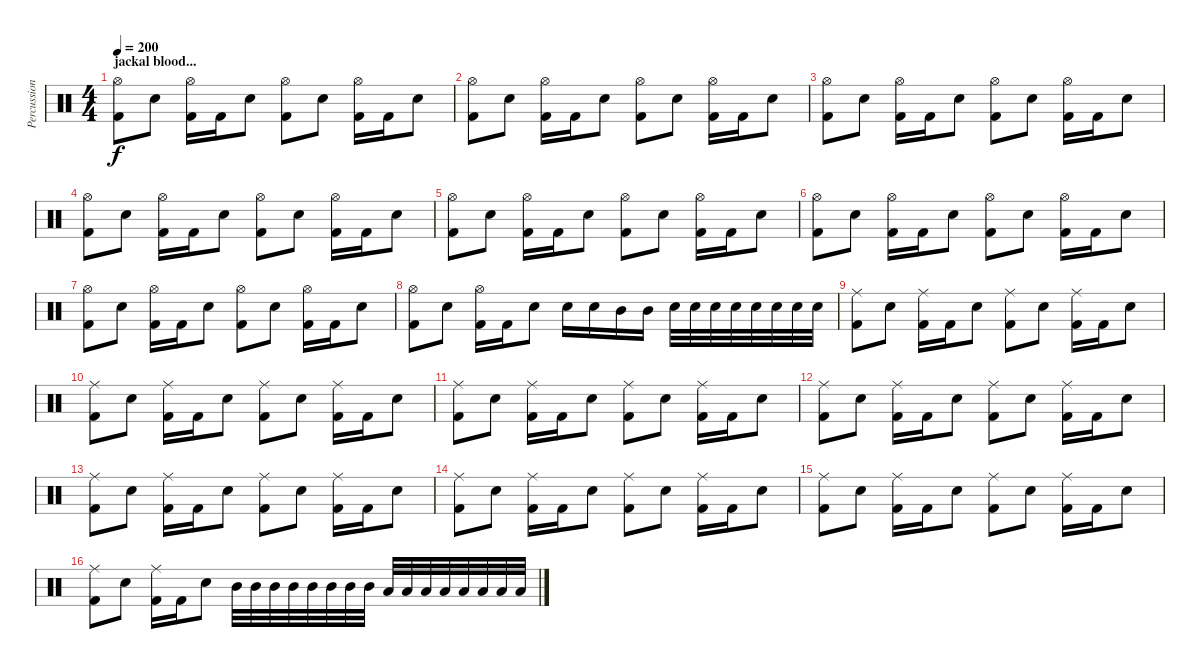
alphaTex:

\track ("Percussions" "Percussion") {instrument percussion}
\staff {score}
\articulation defaults
\ts (4 4)
\section ("" "jackal blood...")
\tempo 200
\clef neutral
\ks c
("Hi-Hat (open)" "Kick (hit) 2").8{dy f} "Electric Snare (hit)".8 ("Hi-Hat (open)" "Kick (hit) 2").16 "Kick (hit) 2".16 "Electric Snare (hit)".8 ("Hi-Hat (open)" "Kick (hit) 2").8 "Electric Snare (hit)".8 ("Hi-Hat (open)" "Kick (hit) 2").16 "Kick (hit) 2".16 "Electric Snare (hit)".8 |
("Hi-Hat (open)" "Kick (hit) 2").8 "Electric Snare (hit)".8 ("Hi-Hat (open)" "Kick (hit) 2").16 "Kick (hit) 2".16 "Electric Snare (hit)".8 ("Hi-Hat (open)" "Kick (hit) 2").8 "Electric Snare (hit)".8 ("Hi-Hat (open)" "Kick (hit) 2").16 "Kick (hit) 2".16 "Electric Snare (hit)".8 |
("Hi-Hat (open)" "Kick (hit) 2").8 "Electric Snare (hit)".8 ("Hi-Hat (open)" "Kick (hit) 2").16 "Kick (hit) 2".16 "Electric Snare (hit)".8 ("Hi-Hat (open)" "Kick (hit) 2").8 "Electric Snare (hit)".8 ("Hi-Hat (open)" "Kick (hit) 2").16 "Kick (hit) 2".16 "Electric Snare (hit)".8 |
("Hi-Hat (open)" "Kick (hit) 2").8 "Electric Snare (hit)".8 ("Hi-Hat (open)" "Kick (hit) 2").16 "Kick (hit) 2".16 "Electric Snare (hit)".8 ("Hi-Hat (open)" "Kick (hit) 2").8 "Electric Snare (hit)".8 ("Hi-Hat (open)" "Kick (hit) 2").16 "Kick (hit) 2".16 "Electric Snare (hit)".8 |
("Hi-Hat (open)" "Kick (hit) 2").8 "Electric Snare (hit)".8 ("Hi-Hat (open)" "Kick (hit) 2").16 "Kick (hit) 2".16 "Electric Snare (hit)".8 ("Hi-Hat (open)" "Kick (hit) 2").8 "Electric Snare (hit)".8 ("Hi-Hat (open)" "Kick (hit) 2").16 "Kick (hit) 2".16 "Electric Snare (hit)".8 |
("Hi-Hat (open)" "Kick (hit) 2").8 "Electric Snare (hit)".8 ("Hi-Hat (open)" "Kick (hit) 2").16 "Kick (hit) 2".16 "Electric Snare (hit)".8 ("Hi-Hat (open)" "Kick (hit) 2").8 "Electric Snare (hit)".8 ("Hi-Hat (open)" "Kick (hit) 2").16 "Kick (hit) 2".16 "Electric Snare (hit)".8 |
("Hi-Hat (open)" "Kick (hit) 2").8 "Electric Snare (hit)".8 ("Hi-Hat (open)" "Kick (hit) 2").16 "Kick (hit) 2".16 "Electric Snare (hit)".8 ("Hi-Hat (open)" "Kick (hit) 2").8 "Electric Snare (hit)".8 ("Hi-Hat (open)" "Kick (hit) 2").16 "Kick (hit) 2".16 "Electric Snare (hit)".8 |
("Hi-Hat (open)" "Kick (hit) 2").8 "Electric Snare (hit)".8 ("Hi-Hat (open)" "Kick (hit) 2").16 "Kick (hit) 2".16 "Electric Snare (hit)".8 "Electric Snare (hit)".16 "Electric Snare (hit)".16 "Mid Tom (hit)".16 "Mid Tom (hit)".16 "Electric Snare (hit)".32 "Electric Snare (hit)".32 "Electric Snare (hit)".32 "Electric Snare (hit)".32 "Electric Snare (hit)".32 "Electric Snare (hit)".32 "Electric Snare (hit)".32 "Electric Snare (hit)".32 |
("Ride (middle)" "Kick (hit) 2").8 "Electric Snare (hit)".8 ("Ride (middle)" "Kick (hit) 2").16 "Kick (hit) 2".16 "Electric Snare (hit)".8 ("Ride (middle)" "Kick (hit) 2").8 "Electric Snare (hit)".8 ("Ride (middle)" "Kick (hit) 2").16 "Kick (hit) 2".16 "Electric Snare (hit)".8 |
("Ride (middle)" "Kick (hit) 2").8 "Electric Snare (hit)".8 ("Ride (middle)" "Kick (hit) 2").16 "Kick (hit) 2".16 "Electric Snare (hit)".8 ("Ride (middle)" "Kick (hit) 2").8 "Electric Snare (hit)".8 ("Ride (middle)" "Kick (hit) 2").16 "Kick (hit) 2".16 "Electric Snare (hit)".8 |
("Ride (middle)" "Kick (hit) 2").8 "Electric Snare (hit)".8 ("Ride (middle)" "Kick (hit) 2").16 "Kick (hit) 2".16 "Electric Snare (hit)".8 ("Ride (middle)" "Kick (hit) 2").8 "Electric Snare (hit)".8 ("Ride (middle)" "Kick (hit) 2").16 "Kick (hit) 2".16 "Electric Snare (hit)".8 |
("Ride (middle)" "Kick (hit) 2").8 "Electric Snare (hit)".8 ("Ride (middle)" "Kick (hit) 2").16 "Kick (hit) 2".16 "Electric Snare (hit)".8 ("Ride (middle)" "Kick (hit) 2").8 "Electric Snare (hit)".8 ("Ride (middle)" "Kick (hit) 2").16 "Kick (hit) 2".16 "Electric Snare (hit)".8 |
("Ride (middle)" "Kick (hit) 2").8 "Electric Snare (hit)".8 ("Ride (middle)" "Kick (hit) 2").16 "Kick (hit) 2".16 "Electric Snare (hit)".8 ("Ride (middle)" "Kick (hit) 2").8 "Electric Snare (hit)".8 ("Ride (middle)" "Kick (hit) 2").16 "Kick (hit) 2".16 "Electric Snare (hit)".8 |
("Ride (middle)" "Kick (hit) 2").8 "Electric Snare (hit)".8 ("Ride (middle)" "Kick (hit) 2").16 "Kick (hit) 2".16 "Electric Snare (hit)".8 ("Ride (middle)" "Kick (hit) 2").8 "Electric Snare (hit)".8 ("Ride (middle)" "Kick (hit) 2").16 "Kick (hit) 2".16 "Electric Snare (hit)".8 |
("Ride (middle)" "Kick (hit) 2").8 "Electric Snare (hit)".8 ("Ride (middle)" "Kick (hit) 2").16 "Kick (hit) 2".16 "Electric Snare (hit)".8 ("Ride (middle)" "Kick (hit) 2").8 "Electric Snare (hit)".8 ("Ride (middle)" "Kick (hit) 2").16 "Kick (hit) 2".16 "Electric Snare (hit)".8 |
("Ride (middle)" "Kick (hit) 2").8 "Electric Snare (hit)".8 ("Ride (middle)" "Kick (hit) 2").16 "Kick (hit) 2".16 "Electric Snare (hit)".8 "Mid Tom (hit)".32 "Mid Tom (hit)".32 "Mid Tom (hit)".32 "Mid Tom (hit)".32 "Mid Tom (hit)".32 "Mid Tom (hit)".32 "Mid Tom (hit)".32 "Mid Tom (hit)".32 "Low Tom (hit)".32 "Low Tom (hit)".32 "Low Tom (hit)".32 "Low Tom (hit)".32 "Low Tom (hit)".32 "Low Tom (hit)".32 "Low Tom (hit)".32 "Low Tom (hit)".32
